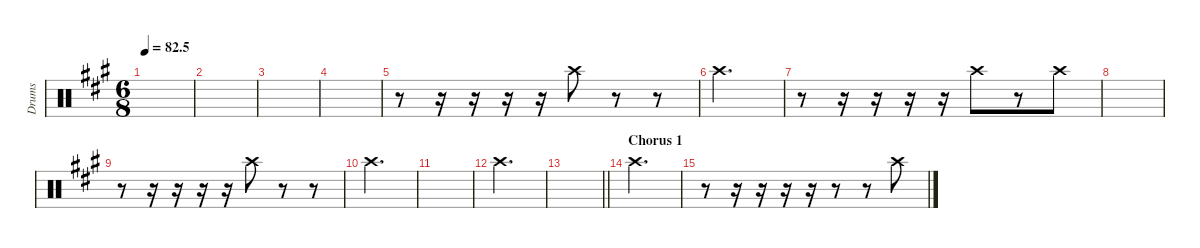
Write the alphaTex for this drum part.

\defaultSystemsLayout 4
\hideDynamics
\bracketExtendMode nobrackets
\otherSystemsTrackNameOrientation horizontal
\track ("Left crash" "Drums") {instrument percussion}
\staff {score}
\articulation defaults
\ts (6 8)
\tempo
82.5
\accidentals auto
\clef neutral
\ottava regular
\simile none
\scale
0.333333
\ks a
|
\scale
0.333333 |
\scale
0.333333 |
\scale
0.333333 |
\scale
0.333333 r.8 r.16 r.16 r.16 r.16 "Crash high (hit)"{acc forcenatural}.8 r.8 r.8 |
\scale
0.333333 "Crash high (hit)"{acc forcenatural}.2{d} |
\scale
0.333333 r.8 r.16 r.16 r.16 r.16 "Crash high (hit)"{acc forcenatural}.8 r.8 "Crash high (hit)"{acc forcenatural}.8 |
\scale
0.333333 |
\scale
0.333333 r.8 r.16 r.16 r.16 r.16 "Crash high (hit)"{acc forcenatural}.8 r.8 r.8 |
\scale
0.333333 "Crash high (hit)"{acc forcenatural}.2{d} |
\scale
0.333333 |
\scale
0.333333 "Crash high (hit)"{acc forcenatural}.2{d} |
\scale
0.333333
\barLineRight lightlight
|
\section ("" "Chorus 1")
\scale
0.333333 "Crash high (hit)"{acc forcenatural}.2{d} |
\scale
0.333333 r.8 r.16 r.16 r.16 r.16 r.8 r.8 "Crash high (hit)"{acc forcenatural}.8 |
\scale
0.333333
